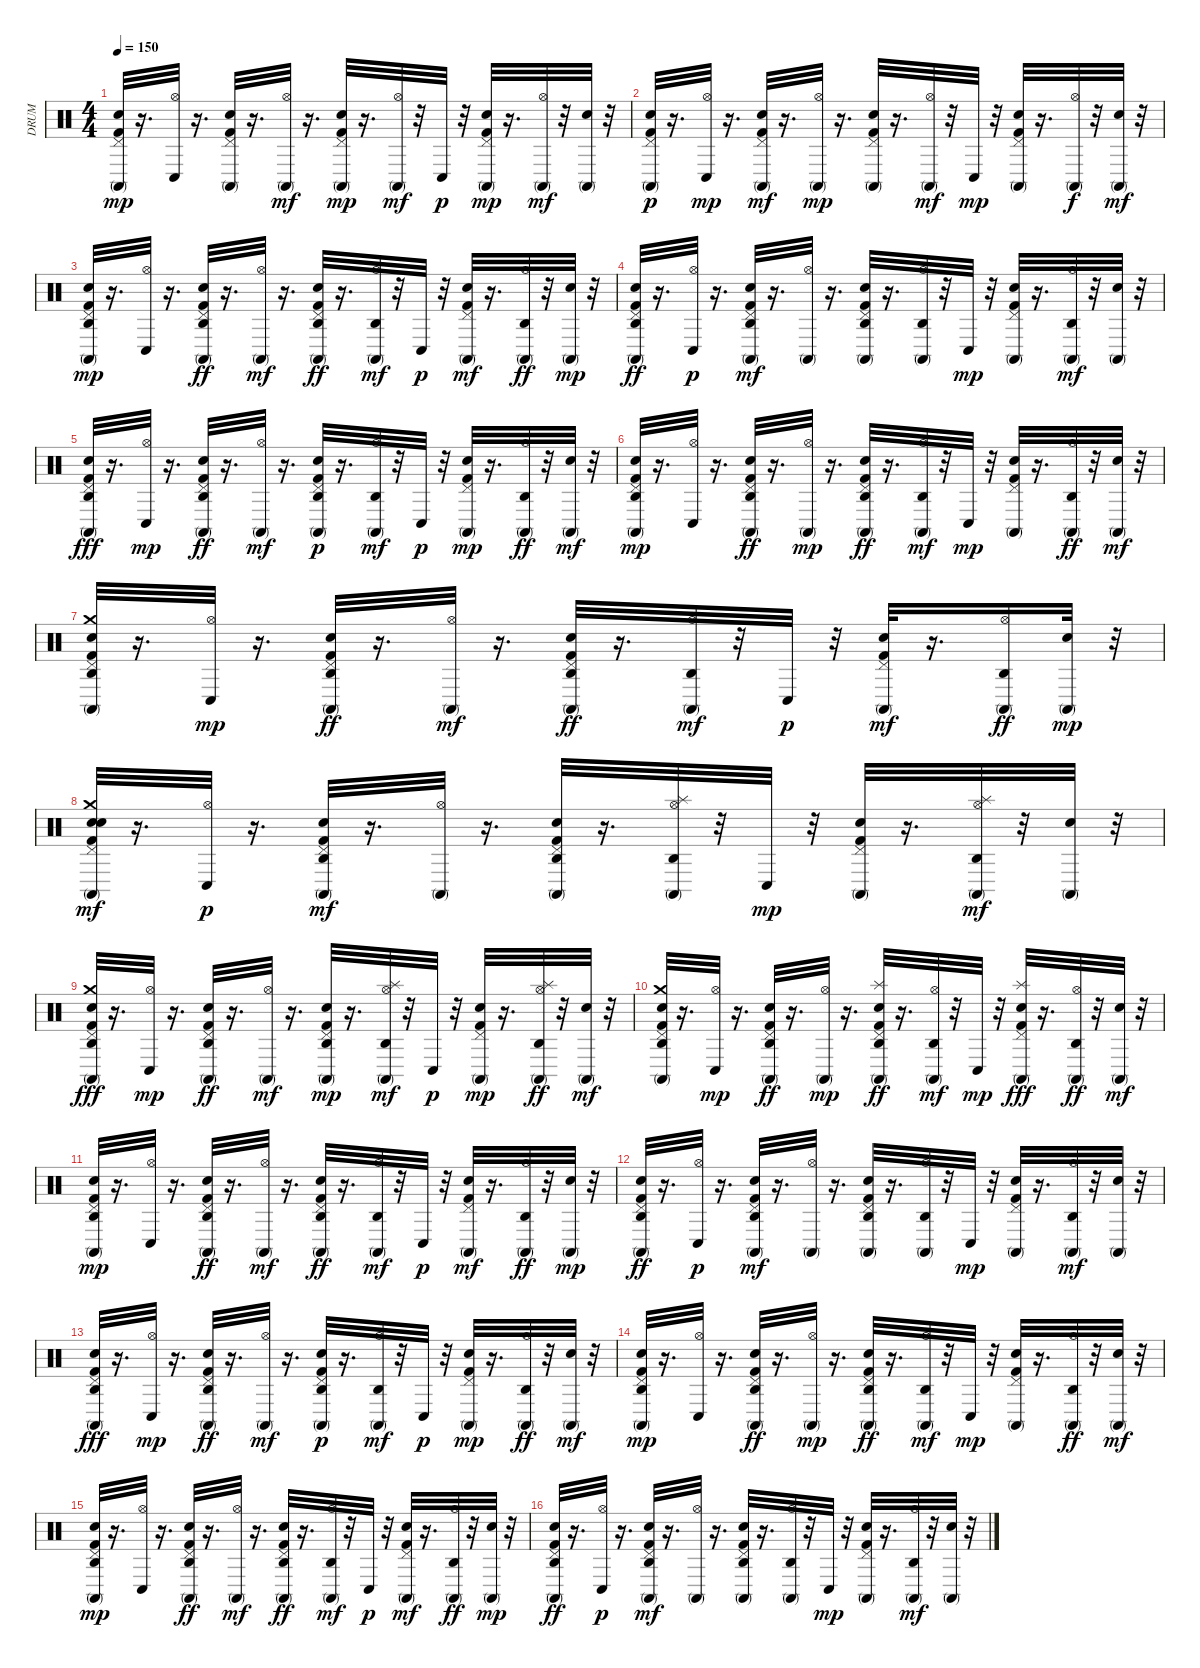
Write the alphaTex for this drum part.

\track ("DRUM" "DRUM") {instrument percussion}
\staff {score}
\articulation defaults
\ts (4 4)
\tempo 150
\clef neutral
\ks c
("Kick (hit) 2" "Hand Clap (hit)" "Pedal Hi-Hat (hit)" "Conga high (mute)").32{dy mp} r.16{d} ("Hi-Hat (open)" "Conga low (hit)").32 r.16{d} ("Kick (hit) 2" "Hand Clap (hit)" "Pedal Hi-Hat (hit)" "Conga high (mute)").32 r.16{d} ("Hi-Hat (open)" "Conga high (mute)").32{dy mf} r.16{d} ("Kick (hit) 2" "Hand Clap (hit)" "Pedal Hi-Hat (hit)" "Conga high (mute)").32{dy mp} r.16{d} ("Hi-Hat (open)" "Conga high (mute)").32{dy mf} r.32 "Conga low (hit)".32{dy p} r.32 ("Kick (hit) 2" "Hand Clap (hit)" "Pedal Hi-Hat (hit)" "Conga high (mute)").32{dy mp} r.16{d} ("Hi-Hat (open)" "Conga high (mute)").32{dy mf} r.32 ("Hand Clap (hit)" "Conga high (mute)").32 r.32 |
("Kick (hit) 2" "Hand Clap (hit)" "Pedal Hi-Hat (hit)" "Conga high (mute)").32{dy p} r.16{d} ("Hi-Hat (open)" "Conga low (hit)").32{dy mp} r.16{d} ("Kick (hit) 2" "Hand Clap (hit)" "Pedal Hi-Hat (hit)" "Conga high (mute)").32{dy mf} r.16{d} ("Hi-Hat (open)" "Conga high (mute)").32{dy mp} r.16{d} ("Kick (hit) 2" "Hand Clap (hit)" "Pedal Hi-Hat (hit)" "Conga high (mute)").32 r.16{d} ("Hi-Hat (open)" "Conga high (mute)").32{dy mf} r.32 "Conga low (hit)".32{dy mp} r.32 ("Kick (hit) 2" "Hand Clap (hit)" "Pedal Hi-Hat (hit)" "Conga high (mute)").32 r.16{d} ("Hi-Hat (open)" "Conga high (mute)").32{dy f} r.32 ("Hand Clap (hit)" "Conga high (mute)").32{dy mf} r.32 |
("Kick (hit) 2" "Hand Clap (hit)" "Pedal Hi-Hat (hit)" "Conga high (mute)" "Agogo high (hit)").32{dy mp} r.16{d} ("Hi-Hat (open)" "Conga low (hit)").32 r.16{d} ("Kick (hit) 2" "Hand Clap (hit)" "Pedal Hi-Hat (hit)" "Conga high (mute)" "Agogo high (hit)").32{dy ff} r.16{d} ("Hi-Hat (open)" "Conga high (mute)").32{dy mf} r.16{d} ("Kick (hit) 2" "Hand Clap (hit)" "Pedal Hi-Hat (hit)" "Conga high (mute)" "Agogo high (hit)").32{dy ff} r.16{d} ("Hi-Hat (open)" "Conga high (mute)" "Agogo high (hit)").32{dy mf} r.32 "Conga low (hit)".32{dy p} r.32 ("Kick (hit) 2" "Hand Clap (hit)" "Pedal Hi-Hat (hit)" "Conga high (mute)").32{dy mf} r.16{d} ("Hi-Hat (open)" "Conga high (mute)" "Agogo high (hit)").32{dy ff} r.32 ("Hand Clap (hit)" "Conga high (mute)").32{dy mp} r.32 |
("Kick (hit) 2" "Hand Clap (hit)" "Pedal Hi-Hat (hit)" "Conga high (mute)" "Agogo high (hit)").32{dy ff} r.16{d} ("Hi-Hat (open)" "Conga low (hit)").32{dy p} r.16{d} ("Kick (hit) 2" "Hand Clap (hit)" "Pedal Hi-Hat (hit)" "Conga high (mute)" "Agogo high (hit)").32{dy mf} r.16{d} ("Hi-Hat (open)" "Conga high (mute)").32 r.16{d} ("Kick (hit) 2" "Hand Clap (hit)" "Pedal Hi-Hat (hit)" "Conga high (mute)" "Agogo high (hit)").32 r.16{d} ("Hi-Hat (open)" "Conga high (mute)" "Agogo high (hit)").32 r.32 "Conga low (hit)".32{dy mp} r.32 ("Kick (hit) 2" "Hand Clap (hit)" "Pedal Hi-Hat (hit)" "Conga high (mute)").32 r.16{d} ("Hi-Hat (open)" "Conga high (mute)" "Agogo high (hit)").32{dy mf} r.32 ("Hand Clap (hit)" "Conga high (mute)").32 r.32 |
("Kick (hit) 2" "Hand Clap (hit)" "Pedal Hi-Hat (hit)" "Conga high (mute)" "Agogo high (hit)").32{dy fff} r.16{d} ("Hi-Hat (open)" "Conga low (hit)").32{dy mp} r.16{d} ("Kick (hit) 2" "Hand Clap (hit)" "Pedal Hi-Hat (hit)" "Conga high (mute)" "Agogo high (hit)").32{dy ff} r.16{d} ("Hi-Hat (open)" "Conga high (mute)").32{dy mf} r.16{d} ("Kick (hit) 2" "Hand Clap (hit)" "Pedal Hi-Hat (hit)" "Conga high (mute)" "Agogo high (hit)").32{dy p} r.16{d} ("Hi-Hat (open)" "Conga high (mute)" "Agogo high (hit)").32{dy mf} r.32 "Conga low (hit)".32{dy p} r.32 ("Kick (hit) 2" "Hand Clap (hit)" "Pedal Hi-Hat (hit)" "Conga high (mute)").32{dy mp} r.16{d} ("Hi-Hat (open)" "Conga high (mute)" "Agogo high (hit)").32{dy ff} r.32 ("Hand Clap (hit)" "Conga high (mute)").32{dy mf} r.32 |
("Kick (hit) 2" "Hand Clap (hit)" "Pedal Hi-Hat (hit)" "Conga high (mute)" "Agogo high (hit)").32{dy mp} r.16{d} ("Hi-Hat (open)" "Conga low (hit)").32 r.16{d} ("Kick (hit) 2" "Hand Clap (hit)" "Pedal Hi-Hat (hit)" "Conga high (mute)" "Agogo high (hit)").32{dy ff} r.16{d} ("Hi-Hat (open)" "Conga high (mute)").32{dy mp} r.16{d} ("Kick (hit) 2" "Hand Clap (hit)" "Pedal Hi-Hat (hit)" "Conga high (mute)" "Agogo high (hit)").32{dy ff} r.16{d} ("Hi-Hat (open)" "Conga high (mute)" "Agogo high (hit)").32{dy mf} r.32 "Conga low (hit)".32{dy mp} r.32 ("Kick (hit) 2" "Hand Clap (hit)" "Pedal Hi-Hat (hit)" "Conga high (mute)").32 r.16{d} ("Hi-Hat (open)" "Conga high (mute)" "Agogo high (hit)").32{dy ff} r.32 ("Hand Clap (hit)" "Conga high (mute)").32{dy mf} r.32 |
("Kick (hit) 2" "Hand Clap (hit)" "Pedal Hi-Hat (hit)" "Crash medium (hit)" "Conga high (mute)" "Agogo high (hit)").32 r.16{d} ("Hi-Hat (open)" "Conga low (hit)").32{dy mp} r.16{d} ("Kick (hit) 2" "Hand Clap (hit)" "Pedal Hi-Hat (hit)" "Conga high (mute)" "Agogo high (hit)").32{dy ff} r.16{d} ("Hi-Hat (open)" "Conga high (mute)").32{dy mf} r.16{d} ("Kick (hit) 2" "Hand Clap (hit)" "Pedal Hi-Hat (hit)" "Conga high (mute)" "Agogo high (hit)").32{dy ff} r.16{d} ("Hi-Hat (open)" "Conga high (mute)" "Agogo high (hit)").32{dy mf} r.32 "Conga low (hit)".32{dy p} r.32 ("Kick (hit) 2" "Hand Clap (hit)" "Pedal Hi-Hat (hit)" "Conga high (mute)").32{dy mf} r.16{d} ("Hi-Hat (open)" "Conga high (mute)" "Agogo high (hit)").16{dy ff} ("Hand Clap (hit)" "Conga high (mute)").32{dy mp} r.32 |
("Kick (hit) 2" "Hand Clap (hit)" "Hand Clap (hit)" "Pedal Hi-Hat (hit)" "Crash medium (hit)" "Conga high (mute)").32{dy mf} r.16{d} ("Hi-Hat (open)" "Conga low (hit)").32{dy p} r.16{d} ("Kick (hit) 2" "Hand Clap (hit)" "Pedal Hi-Hat (hit)" "Conga high (mute)" "Agogo high (hit)").32{dy mf} r.16{d} ("Hi-Hat (open)" "Conga high (mute)").32 r.16{d} ("Kick (hit) 2" "Hand Clap (hit)" "Pedal Hi-Hat (hit)" "Conga high (mute)" "Agogo high (hit)").32 r.16{d} ("Hi-Hat (open)" "Splash (hit)" "Conga high (mute)" "Agogo high (hit)").32 r.32 "Conga low (hit)".32{dy mp} r.32 ("Kick (hit) 2" "Hand Clap (hit)" "Pedal Hi-Hat (hit)" "Conga high (mute)").32 r.16{d} ("Hi-Hat (open)" "Splash (hit)" "Conga high (mute)" "Agogo high (hit)").32{dy mf} r.32 ("Hand Clap (hit)" "Conga high (mute)").32 r.32 |
("Kick (hit) 2" "Hand Clap (hit)" "Pedal Hi-Hat (hit)" "Crash medium (hit)" "Conga high (mute)" "Agogo high (hit)").32{dy fff} r.16{d} ("Hi-Hat (open)" "Conga low (hit)").32{dy mp} r.16{d} ("Kick (hit) 2" "Hand Clap (hit)" "Pedal Hi-Hat (hit)" "Conga high (mute)" "Agogo high (hit)").32{dy ff} r.16{d} ("Hi-Hat (open)" "Conga high (mute)").32{dy mf} r.16{d} ("Kick (hit) 2" "Hand Clap (hit)" "Pedal Hi-Hat (hit)" "Conga high (mute)" "Agogo high (hit)").32{dy mp} r.16{d} ("Hi-Hat (open)" "Splash (hit)" "Conga high (mute)" "Agogo high (hit)").32{dy mf} r.32 "Conga low (hit)".32{dy p} r.32 ("Kick (hit) 2" "Hand Clap (hit)" "Pedal Hi-Hat (hit)" "Conga high (mute)").32{dy mp} r.16{d} ("Hi-Hat (open)" "Splash (hit)" "Conga high (mute)" "Agogo high (hit)").32{dy ff} r.32 ("Hand Clap (hit)" "Conga high (mute)").32{dy mf} r.32 |
("Kick (hit) 2" "Hand Clap (hit)" "Pedal Hi-Hat (hit)" "Crash medium (hit)" "Conga high (mute)" "Agogo high (hit)").32 r.16{d} ("Hi-Hat (open)" "Conga low (hit)").32{dy mp} r.16{d} ("Kick (hit) 2" "Hand Clap (hit)" "Pedal Hi-Hat (hit)" "Conga high (mute)" "Agogo high (hit)").32{dy ff} r.16{d} ("Hi-Hat (open)" "Conga high (mute)").32{dy mp} r.16{d} ("Kick (hit) 2" "Hand Clap (hit)" "Pedal Hi-Hat (hit)" "Splash (hit)" "Conga high (mute)" "Agogo high (hit)").32{dy ff} r.16{d} ("Hi-Hat (open)" "Conga high (mute)" "Agogo high (hit)").32{dy mf} r.32 "Conga low (hit)".32{dy mp} r.32 ("Kick (hit) 2" "Hand Clap (hit)" "Pedal Hi-Hat (hit)" "Splash (hit)" "Conga high (mute)").32{dy fff} r.16{d} ("Hi-Hat (open)" "Conga high (mute)" "Agogo high (hit)").32{dy ff} r.32 ("Hand Clap (hit)" "Conga high (mute)").32{dy mf} r.32 |
("Kick (hit) 2" "Hand Clap (hit)" "Pedal Hi-Hat (hit)" "Conga high (mute)" "Agogo high (hit)").32{dy mp} r.16{d} ("Hi-Hat (open)" "Conga low (hit)").32 r.16{d} ("Kick (hit) 2" "Hand Clap (hit)" "Pedal Hi-Hat (hit)" "Conga high (mute)" "Agogo high (hit)").32{dy ff} r.16{d} ("Hi-Hat (open)" "Conga high (mute)").32{dy mf} r.16{d} ("Kick (hit) 2" "Hand Clap (hit)" "Pedal Hi-Hat (hit)" "Conga high (mute)" "Agogo high (hit)").32{dy ff} r.16{d} ("Hi-Hat (open)" "Conga high (mute)" "Agogo high (hit)").32{dy mf} r.32 "Conga low (hit)".32{dy p} r.32 ("Kick (hit) 2" "Hand Clap (hit)" "Pedal Hi-Hat (hit)" "Conga high (mute)").32{dy mf} r.16{d} ("Hi-Hat (open)" "Conga high (mute)" "Agogo high (hit)").32{dy ff} r.32 ("Hand Clap (hit)" "Conga high (mute)").32{dy mp} r.32 |
("Kick (hit) 2" "Hand Clap (hit)" "Pedal Hi-Hat (hit)" "Conga high (mute)" "Agogo high (hit)").32{dy ff} r.16{d} ("Hi-Hat (open)" "Conga low (hit)").32{dy p} r.16{d} ("Kick (hit) 2" "Hand Clap (hit)" "Pedal Hi-Hat (hit)" "Conga high (mute)" "Agogo high (hit)").32{dy mf} r.16{d} ("Hi-Hat (open)" "Conga high (mute)").32 r.16{d} ("Kick (hit) 2" "Hand Clap (hit)" "Pedal Hi-Hat (hit)" "Conga high (mute)" "Agogo high (hit)").32 r.16{d} ("Hi-Hat (open)" "Conga high (mute)" "Agogo high (hit)").32 r.32 "Conga low (hit)".32{dy mp} r.32 ("Kick (hit) 2" "Hand Clap (hit)" "Pedal Hi-Hat (hit)" "Conga high (mute)").32 r.16{d} ("Hi-Hat (open)" "Conga high (mute)" "Agogo high (hit)").32{dy mf} r.32 ("Hand Clap (hit)" "Conga high (mute)").32 r.32 |
("Kick (hit) 2" "Hand Clap (hit)" "Pedal Hi-Hat (hit)" "Conga high (mute)" "Agogo high (hit)").32{dy fff} r.16{d} ("Hi-Hat (open)" "Conga low (hit)").32{dy mp} r.16{d} ("Kick (hit) 2" "Hand Clap (hit)" "Pedal Hi-Hat (hit)" "Conga high (mute)" "Agogo high (hit)").32{dy ff} r.16{d} ("Hi-Hat (open)" "Conga high (mute)").32{dy mf} r.16{d} ("Kick (hit) 2" "Hand Clap (hit)" "Pedal Hi-Hat (hit)" "Conga high (mute)" "Agogo high (hit)").32{dy p} r.16{d} ("Hi-Hat (open)" "Conga high (mute)" "Agogo high (hit)").32{dy mf} r.32 "Conga low (hit)".32{dy p} r.32 ("Kick (hit) 2" "Hand Clap (hit)" "Pedal Hi-Hat (hit)" "Conga high (mute)").32{dy mp} r.16{d} ("Hi-Hat (open)" "Conga high (mute)" "Agogo high (hit)").32{dy ff} r.32 ("Hand Clap (hit)" "Conga high (mute)").32{dy mf} r.32 |
("Kick (hit) 2" "Hand Clap (hit)" "Pedal Hi-Hat (hit)" "Conga high (mute)" "Agogo high (hit)").32{dy mp} r.16{d} ("Hi-Hat (open)" "Conga low (hit)").32 r.16{d} ("Kick (hit) 2" "Hand Clap (hit)" "Pedal Hi-Hat (hit)" "Conga high (mute)" "Agogo high (hit)").32{dy ff} r.16{d} ("Hi-Hat (open)" "Conga high (mute)").32{dy mp} r.16{d} ("Kick (hit) 2" "Hand Clap (hit)" "Pedal Hi-Hat (hit)" "Conga high (mute)" "Agogo high (hit)").32{dy ff} r.16{d} ("Hi-Hat (open)" "Conga high (mute)" "Agogo high (hit)").32{dy mf} r.32 "Conga low (hit)".32{dy mp} r.32 ("Kick (hit) 2" "Hand Clap (hit)" "Pedal Hi-Hat (hit)" "Conga high (mute)").32 r.16{d} ("Hi-Hat (open)" "Conga high (mute)" "Agogo high (hit)").32{dy ff} r.32 ("Hand Clap (hit)" "Conga high (mute)").32{dy mf} r.32 |
("Kick (hit) 2" "Hand Clap (hit)" "Pedal Hi-Hat (hit)" "Conga high (mute)" "Agogo high (hit)").32{dy mp} r.16{d} ("Hi-Hat (open)" "Conga low (hit)").32 r.16{d} ("Kick (hit) 2" "Hand Clap (hit)" "Pedal Hi-Hat (hit)" "Conga high (mute)" "Agogo high (hit)").32{dy ff} r.16{d} ("Hi-Hat (open)" "Conga high (mute)").32{dy mf} r.16{d} ("Kick (hit) 2" "Hand Clap (hit)" "Pedal Hi-Hat (hit)" "Conga high (mute)" "Agogo high (hit)").32{dy ff} r.16{d} ("Hi-Hat (open)" "Conga high (mute)" "Agogo high (hit)").32{dy mf} r.32 "Conga low (hit)".32{dy p} r.32 ("Kick (hit) 2" "Hand Clap (hit)" "Pedal Hi-Hat (hit)" "Conga high (mute)").32{dy mf} r.16{d} ("Hi-Hat (open)" "Conga high (mute)" "Agogo high (hit)").32{dy ff} r.32 ("Hand Clap (hit)" "Conga high (mute)").32{dy mp} r.32 |
("Kick (hit) 2" "Hand Clap (hit)" "Pedal Hi-Hat (hit)" "Conga high (mute)" "Agogo high (hit)").32{dy ff} r.16{d} ("Hi-Hat (open)" "Conga low (hit)").32{dy p} r.16{d} ("Kick (hit) 2" "Hand Clap (hit)" "Pedal Hi-Hat (hit)" "Conga high (mute)" "Agogo high (hit)").32{dy mf} r.16{d} ("Hi-Hat (open)" "Conga high (mute)").32 r.16{d} ("Kick (hit) 2" "Hand Clap (hit)" "Pedal Hi-Hat (hit)" "Conga high (mute)" "Agogo high (hit)").32 r.16{d} ("Hi-Hat (open)" "Conga high (mute)" "Agogo high (hit)").32 r.32 "Conga low (hit)".32{dy mp} r.32 ("Kick (hit) 2" "Hand Clap (hit)" "Pedal Hi-Hat (hit)" "Conga high (mute)").32 r.16{d} ("Hi-Hat (open)" "Conga high (mute)" "Agogo high (hit)").32{dy mf} r.32 ("Hand Clap (hit)" "Conga high (mute)").32 r.32
